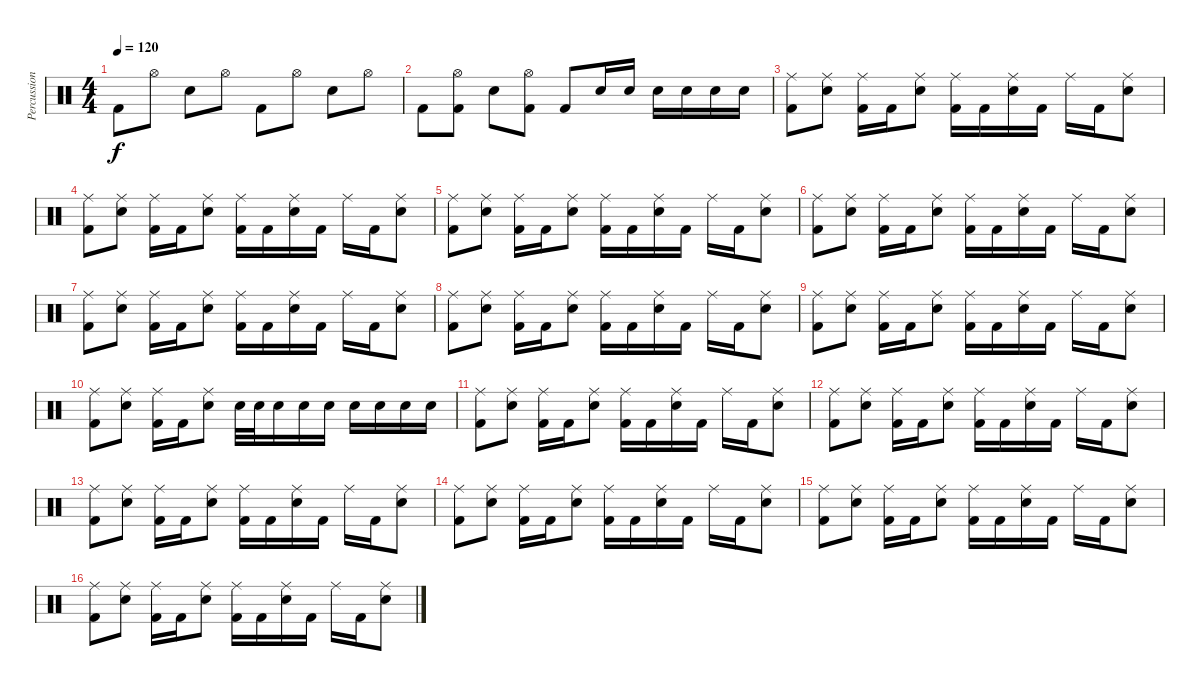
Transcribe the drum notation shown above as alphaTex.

\track ("Percussion" "Percussion") {instrument percussion}
\staff {score}
\articulation defaults
\ts (4 4)
\tempo 120
\clef neutral
\ks c "Kick (hit) 2".8{dy f} "Hi-Hat (open)".8 "Electric Snare (hit)".8 "Hi-Hat (open)".8 "Kick (hit) 2".8 "Hi-Hat (open)".8 "Electric Snare (hit)".8 "Hi-Hat (open)".8
|
"Kick (hit) 2".8 ("Hi-Hat (open)" "Kick (hit) 2").8 "Electric Snare (hit)".8 ("Hi-Hat (open)" "Kick (hit) 2").8 "Kick (hit) 2".8 "Electric Snare (hit)".16 "Electric Snare (hit)".16 "Electric Snare (hit)".16 "Electric Snare (hit)".16 "Electric Snare (hit)".16 "Electric Snare (hit)".16 |
("Ride (middle)" "Kick (hit) 2").8 ("Ride (middle)" "Electric Snare (hit)").8 ("Ride (middle)" "Kick (hit) 2").16 "Kick (hit) 2".16 ("Ride (middle)" "Electric Snare (hit)").8 ("Ride (middle)" "Kick (hit) 2").16 "Kick (hit) 2".16 ("Ride (middle)" "Electric Snare (hit)").16 "Kick (hit) 2".16 "Ride (middle)".16 "Kick (hit) 2".16 ("Ride (middle)" "Electric Snare (hit)").8 |
("Ride (middle)" "Kick (hit) 2").8 ("Ride (middle)" "Electric Snare (hit)").8 ("Ride (middle)" "Kick (hit) 2").16 "Kick (hit) 2".16 ("Ride (middle)" "Electric Snare (hit)").8 ("Ride (middle)" "Kick (hit) 2").16 "Kick (hit) 2".16 ("Ride (middle)" "Electric Snare (hit)").16 "Kick (hit) 2".16 "Ride (middle)".16 "Kick (hit) 2".16 ("Ride (middle)" "Electric Snare (hit)").8 |
("Ride (middle)" "Kick (hit) 2").8 ("Ride (middle)" "Electric Snare (hit)").8 ("Ride (middle)" "Kick (hit) 2").16 "Kick (hit) 2".16 ("Ride (middle)" "Electric Snare (hit)").8 ("Ride (middle)" "Kick (hit) 2").16 "Kick (hit) 2".16 ("Ride (middle)" "Electric Snare (hit)").16 "Kick (hit) 2".16 "Ride (middle)".16 "Kick (hit) 2".16 ("Ride (middle)" "Electric Snare (hit)").8 |
("Ride (middle)" "Kick (hit) 2").8 ("Ride (middle)" "Electric Snare (hit)").8 ("Ride (middle)" "Kick (hit) 2").16 "Kick (hit) 2".16 ("Ride (middle)" "Electric Snare (hit)").8 ("Ride (middle)" "Kick (hit) 2").16 "Kick (hit) 2".16 ("Ride (middle)" "Electric Snare (hit)").16 "Kick (hit) 2".16 "Ride (middle)".16 "Kick (hit) 2".16 ("Ride (middle)" "Electric Snare (hit)").8 |
("Ride (middle)" "Kick (hit) 2").8 ("Ride (middle)" "Electric Snare (hit)").8 ("Ride (middle)" "Kick (hit) 2").16 "Kick (hit) 2".16 ("Ride (middle)" "Electric Snare (hit)").8 ("Ride (middle)" "Kick (hit) 2").16 "Kick (hit) 2".16 ("Ride (middle)" "Electric Snare (hit)").16 "Kick (hit) 2".16 "Ride (middle)".16 "Kick (hit) 2".16 ("Ride (middle)" "Electric Snare (hit)").8 |
("Ride (middle)" "Kick (hit) 2").8 ("Ride (middle)" "Electric Snare (hit)").8 ("Ride (middle)" "Kick (hit) 2").16 "Kick (hit) 2".16 ("Ride (middle)" "Electric Snare (hit)").8 ("Ride (middle)" "Kick (hit) 2").16 "Kick (hit) 2".16 ("Ride (middle)" "Electric Snare (hit)").16 "Kick (hit) 2".16 "Ride (middle)".16 "Kick (hit) 2".16 ("Ride (middle)" "Electric Snare (hit)").8 |
("Ride (middle)" "Kick (hit) 2").8 ("Ride (middle)" "Electric Snare (hit)").8 ("Ride (middle)" "Kick (hit) 2").16 "Kick (hit) 2".16 ("Ride (middle)" "Electric Snare (hit)").8 ("Ride (middle)" "Kick (hit) 2").16 "Kick (hit) 2".16 ("Ride (middle)" "Electric Snare (hit)").16 "Kick (hit) 2".16 "Ride (middle)".16 "Kick (hit) 2".16 ("Ride (middle)" "Electric Snare (hit)").8 |
("Ride (middle)" "Kick (hit) 2").8 ("Ride (middle)" "Electric Snare (hit)").8 ("Ride (middle)" "Kick (hit) 2").16 "Kick (hit) 2".16 ("Ride (middle)" "Electric Snare (hit)").8 "Electric Snare (hit)".32 "Electric Snare (hit)".32 "Electric Snare (hit)".16 "Electric Snare (hit)".16 "Electric Snare (hit)".16 "Electric Snare (hit)".16 "Electric Snare (hit)".16 "Electric Snare (hit)".16 "Electric Snare (hit)".16 |
("Ride (middle)" "Kick (hit) 2").8 ("Ride (middle)" "Electric Snare (hit)").8 ("Ride (middle)" "Kick (hit) 2").16 "Kick (hit) 2".16 ("Ride (middle)" "Electric Snare (hit)").8 ("Ride (middle)" "Kick (hit) 2").16 "Kick (hit) 2".16 ("Ride (middle)" "Electric Snare (hit)").16 "Kick (hit) 2".16 "Ride (middle)".16 "Kick (hit) 2".16 ("Ride (middle)" "Electric Snare (hit)").8 |
("Ride (middle)" "Kick (hit) 2").8 ("Ride (middle)" "Electric Snare (hit)").8 ("Ride (middle)" "Kick (hit) 2").16 "Kick (hit) 2".16 ("Ride (middle)" "Electric Snare (hit)").8 ("Ride (middle)" "Kick (hit) 2").16 "Kick (hit) 2".16 ("Ride (middle)" "Electric Snare (hit)").16 "Kick (hit) 2".16 "Ride (middle)".16 "Kick (hit) 2".16 ("Ride (middle)" "Electric Snare (hit)").8 |
("Ride (middle)" "Kick (hit) 2").8 ("Ride (middle)" "Electric Snare (hit)").8 ("Ride (middle)" "Kick (hit) 2").16 "Kick (hit) 2".16 ("Ride (middle)" "Electric Snare (hit)").8 ("Ride (middle)" "Kick (hit) 2").16 "Kick (hit) 2".16 ("Ride (middle)" "Electric Snare (hit)").16 "Kick (hit) 2".16 "Ride (middle)".16 "Kick (hit) 2".16 ("Ride (middle)" "Electric Snare (hit)").8 |
("Ride (middle)" "Kick (hit) 2").8 ("Ride (middle)" "Electric Snare (hit)").8 ("Ride (middle)" "Kick (hit) 2").16 "Kick (hit) 2".16 ("Ride (middle)" "Electric Snare (hit)").8 ("Ride (middle)" "Kick (hit) 2").16 "Kick (hit) 2".16 ("Ride (middle)" "Electric Snare (hit)").16 "Kick (hit) 2".16 "Ride (middle)".16 "Kick (hit) 2".16 ("Ride (middle)" "Electric Snare (hit)").8 |
("Ride (middle)" "Kick (hit) 2").8 ("Ride (middle)" "Electric Snare (hit)").8 ("Ride (middle)" "Kick (hit) 2").16 "Kick (hit) 2".16 ("Ride (middle)" "Electric Snare (hit)").8 ("Ride (middle)" "Kick (hit) 2").16 "Kick (hit) 2".16 ("Ride (middle)" "Electric Snare (hit)").16 "Kick (hit) 2".16 "Ride (middle)".16 "Kick (hit) 2".16 ("Ride (middle)" "Electric Snare (hit)").8 |
("Ride (middle)" "Kick (hit) 2").8 ("Ride (middle)" "Electric Snare (hit)").8 ("Ride (middle)" "Kick (hit) 2").16 "Kick (hit) 2".16 ("Ride (middle)" "Electric Snare (hit)").8 ("Ride (middle)" "Kick (hit) 2").16 "Kick (hit) 2".16 ("Ride (middle)" "Electric Snare (hit)").16 "Kick (hit) 2".16 "Ride (middle)".16 "Kick (hit) 2".16 ("Ride (middle)" "Electric Snare (hit)").8
